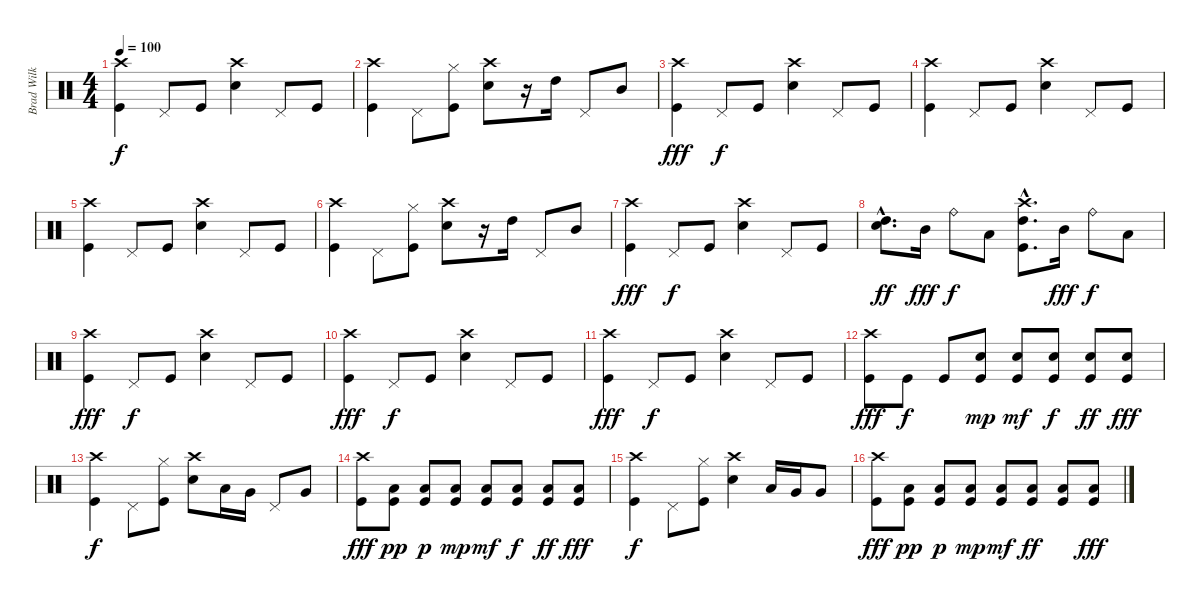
\track ("Brad Wilk - Drums" "Brad Wilk ") {instrument percussion}
\staff {score}
\articulation defaults
\ts (4 4)
\tempo 100
\clef neutral
\ks c
("Crash high (hit)" "Kick (hit)").4{dy f} "Pedal Hi-Hat (hit)".8 "Kick (hit)".8 ("Crash high (hit)" "Electric Snare (hit)").4 "Pedal Hi-Hat (hit)".8 "Kick (hit)".8 |
("Crash high (hit)" "Kick (hit)").4 "Pedal Hi-Hat (hit)".8 ("Hi-Hat (closed)" "Kick (hit)").8 ("Crash high (hit)" "Electric Snare (hit)").8 r.16 "High Tom (hit)".16 "Pedal Hi-Hat (hit)".8 "Mid Tom (hit)".8 |
("Crash high (hit)" "Kick (hit)").4{dy fff} "Pedal Hi-Hat (hit)".8{dy f} "Kick (hit)".8 ("Crash high (hit)" "Electric Snare (hit)").4 "Pedal Hi-Hat (hit)".8 "Kick (hit)".8 |
("Crash high (hit)" "Kick (hit)").4 "Pedal Hi-Hat (hit)".8 "Kick (hit)".8 ("Crash high (hit)" "Electric Snare (hit)").4 "Pedal Hi-Hat (hit)".8 "Kick (hit)".8 |
("Crash high (hit)" "Kick (hit)").4 "Pedal Hi-Hat (hit)".8 "Kick (hit)".8 ("Crash high (hit)" "Electric Snare (hit)").4 "Pedal Hi-Hat (hit)".8 "Kick (hit)".8 |
("Crash high (hit)" "Kick (hit)").4 "Pedal Hi-Hat (hit)".8 ("Hi-Hat (closed)" "Kick (hit)").8 ("Crash high (hit)" "Electric Snare (hit)").8 r.16 "High Tom (hit)".16 "Pedal Hi-Hat (hit)".8 "Mid Tom (hit)".8 |
("Crash high (hit)" "Kick (hit)").4{dy fff} "Pedal Hi-Hat (hit)".8{dy f} "Kick (hit)".8 ("Crash high (hit)" "Electric Snare (hit)").4 "Pedal Hi-Hat (hit)".8 "Kick (hit)".8 |
("High Tom (hit)"{hac} "Electric Snare (hit)"{hac}).8{d dy ff} "Mid Tom (hit)".16{dy fff} "Ride (bell)".8{dy f} "Low Tom (hit)".8 ("High Tom (hit)"{hac} "Crash high (hit)"{hac} "Kick (hit)"{hac}).8{d} "Mid Tom (hit)".16{dy fff} "Ride (bell)".8{dy f} "Low Tom (hit)".8 |
("Crash high (hit)" "Kick (hit)").4{dy fff} "Pedal Hi-Hat (hit)".8{dy f} "Kick (hit)".8 ("Crash high (hit)" "Electric Snare (hit)").4 "Pedal Hi-Hat (hit)".8 "Kick (hit)".8 |
("Crash high (hit)" "Kick (hit)").4{dy fff} "Pedal Hi-Hat (hit)".8{dy f} "Kick (hit)".8 ("Crash high (hit)" "Electric Snare (hit)").4 "Pedal Hi-Hat (hit)".8 "Kick (hit)".8 |
("Crash high (hit)" "Kick (hit)").4{dy fff} "Pedal Hi-Hat (hit)".8{dy f} "Kick (hit)".8 ("Crash high (hit)" "Electric Snare (hit)").4 "Pedal Hi-Hat (hit)".8 "Kick (hit)".8 |
("Crash high (hit)" "Kick (hit)").8{dy fff} "Kick (hit)".8{dy f} "Kick (hit)".8 ("Electric Snare (hit)" "Kick (hit)").8{dy mp} ("Electric Snare (hit)" "Kick (hit)").8{dy mf} ("Electric Snare (hit)" "Kick (hit)").8{dy f} ("Electric Snare (hit)" "Kick (hit)").8{dy ff} ("Electric Snare (hit)" "Kick (hit)").8{dy fff} |
("Crash high (hit)" "Kick (hit)").4{dy f} "Pedal Hi-Hat (hit)".8 ("Hi-Hat (closed)" "Kick (hit)").8 ("Crash high (hit)" "Electric Snare (hit)").8 "Low Tom (hit)".16 "Very Low Tom (hit)".16 "Pedal Hi-Hat (hit)".8 "Very Low Tom (hit)".8 |
("Crash high (hit)" "Kick (hit)").8{dy fff} ("Low Tom (hit)" "Kick (hit)").8{dy pp} ("Low Tom (hit)" "Kick (hit)").8{dy p} ("Low Tom (hit)" "Kick (hit)").8{dy mp} ("Low Tom (hit)" "Kick (hit)").8{dy mf} ("Low Tom (hit)" "Kick (hit)").8{dy f} ("Low Tom (hit)" "Kick (hit)").8{dy ff} ("Low Tom (hit)" "Kick (hit)").8{dy fff} |
("Crash high (hit)" "Kick (hit)").4{dy f} "Pedal Hi-Hat (hit)".8 ("Hi-Hat (closed)" "Kick (hit)").8 ("Crash high (hit)" "Electric Snare (hit)").4 "Low Tom (hit)".16 "Very Low Tom (hit)".16 "Very Low Tom (hit)".8 |
("Crash high (hit)" "Kick (hit)").8{dy fff} ("Low Tom (hit)" "Kick (hit)").8{dy pp} ("Low Tom (hit)" "Kick (hit)").8{dy p} ("Low Tom (hit)" "Kick (hit)").8{dy mp} ("Low Tom (hit)" "Kick (hit)").8{dy mf} ("Low Tom (hit)" "Kick (hit)").8{dy ff} ("Low Tom (hit)" "Kick (hit)").8 ("Low Tom (hit)" "Kick (hit)").8{dy fff}
